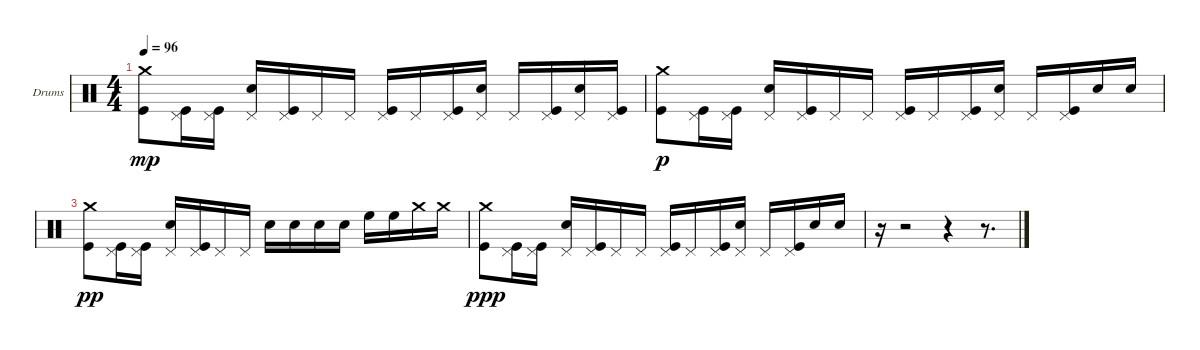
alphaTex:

\bracketExtendMode nobrackets
\firstSystemTrackNameOrientation horizontal
\otherSystemsTrackNameOrientation horizontal
\defaultBarNumberDisplay FirstOfSystem
\track ("Drums" "Drums") {instrument percussion}
\staff {score}
\articulation defaults
\ts (4 4)
\tempo 96
\clef neutral
\ks c
("Kick (hit)" "Crash medium (hit)").8{dy mp} ("Kick (hit)" "Pedal Hi-Hat (hit)").16 ("Kick (hit)" "Pedal Hi-Hat (hit)").16 ("Snare (hit) 2" "Pedal Hi-Hat (hit)").16 ("Kick (hit)" "Pedal Hi-Hat (hit)").16 "Pedal Hi-Hat (hit)".16 "Pedal Hi-Hat (hit)".16 ("Kick (hit)" "Pedal Hi-Hat (hit)").16 "Pedal Hi-Hat (hit)".16 ("Kick (hit)" "Pedal Hi-Hat (hit)").16 ("Snare (hit) 2" "Pedal Hi-Hat (hit)").16 "Pedal Hi-Hat (hit)".16 ("Kick (hit)" "Pedal Hi-Hat (hit)").16 ("Snare (hit) 2" "Pedal Hi-Hat (hit)").16 ("Kick (hit)" "Pedal Hi-Hat (hit)").16 |
("Kick (hit)" "Crash medium (hit)").8{dy p} ("Kick (hit)" "Pedal Hi-Hat (hit)").16 ("Kick (hit)" "Pedal Hi-Hat (hit)").16 ("Snare (hit) 2" "Pedal Hi-Hat (hit)").16 ("Kick (hit)" "Pedal Hi-Hat (hit)").16 "Pedal Hi-Hat (hit)".16 "Pedal Hi-Hat (hit)".16 ("Kick (hit)" "Pedal Hi-Hat (hit)").16 "Pedal Hi-Hat (hit)".16 ("Kick (hit)" "Pedal Hi-Hat (hit)").16 ("Snare (hit) 2" "Pedal Hi-Hat (hit)").16 "Pedal Hi-Hat (hit)".16 ("Kick (hit)" "Pedal Hi-Hat (hit)").16 "Snare (hit) 2".16 "Snare (hit) 2".16 |
("Kick (hit)" "Crash medium (hit)").8{dy pp} ("Kick (hit)" "Pedal Hi-Hat (hit)").16 ("Kick (hit)" "Pedal Hi-Hat (hit)").16 ("Snare (hit) 2" "Pedal Hi-Hat (hit)").16 ("Kick (hit)" "Pedal Hi-Hat (hit)").16 "Pedal Hi-Hat (hit)".16 "Pedal Hi-Hat (hit)".16 "Snare (hit) 2".16 "Snare (hit) 2".16 "Snare (hit) 2".16 "Snare (hit) 2".16 "High Floor Tom (hit)".16 "High Floor Tom (hit)".16 "Crash medium (hit)".16 "Crash medium (hit)".16 |
("Kick (hit)" "Crash medium (hit)").8{dy ppp} ("Kick (hit)" "Pedal Hi-Hat (hit)").16 ("Kick (hit)" "Pedal Hi-Hat (hit)").16 ("Snare (hit) 2" "Pedal Hi-Hat (hit)").16 ("Kick (hit)" "Pedal Hi-Hat (hit)").16 "Pedal Hi-Hat (hit)".16 "Pedal Hi-Hat (hit)".16 ("Kick (hit)" "Pedal Hi-Hat (hit)").16 "Pedal Hi-Hat (hit)".16 ("Kick (hit)" "Pedal Hi-Hat (hit)").16 ("Snare (hit) 2" "Pedal Hi-Hat (hit)").16 "Pedal Hi-Hat (hit)".16 ("Kick (hit)" "Pedal Hi-Hat (hit)").16 "Snare (hit) 2".16 "Snare (hit) 2".16 |
r.16 r.2 r.4 r.8{d}
